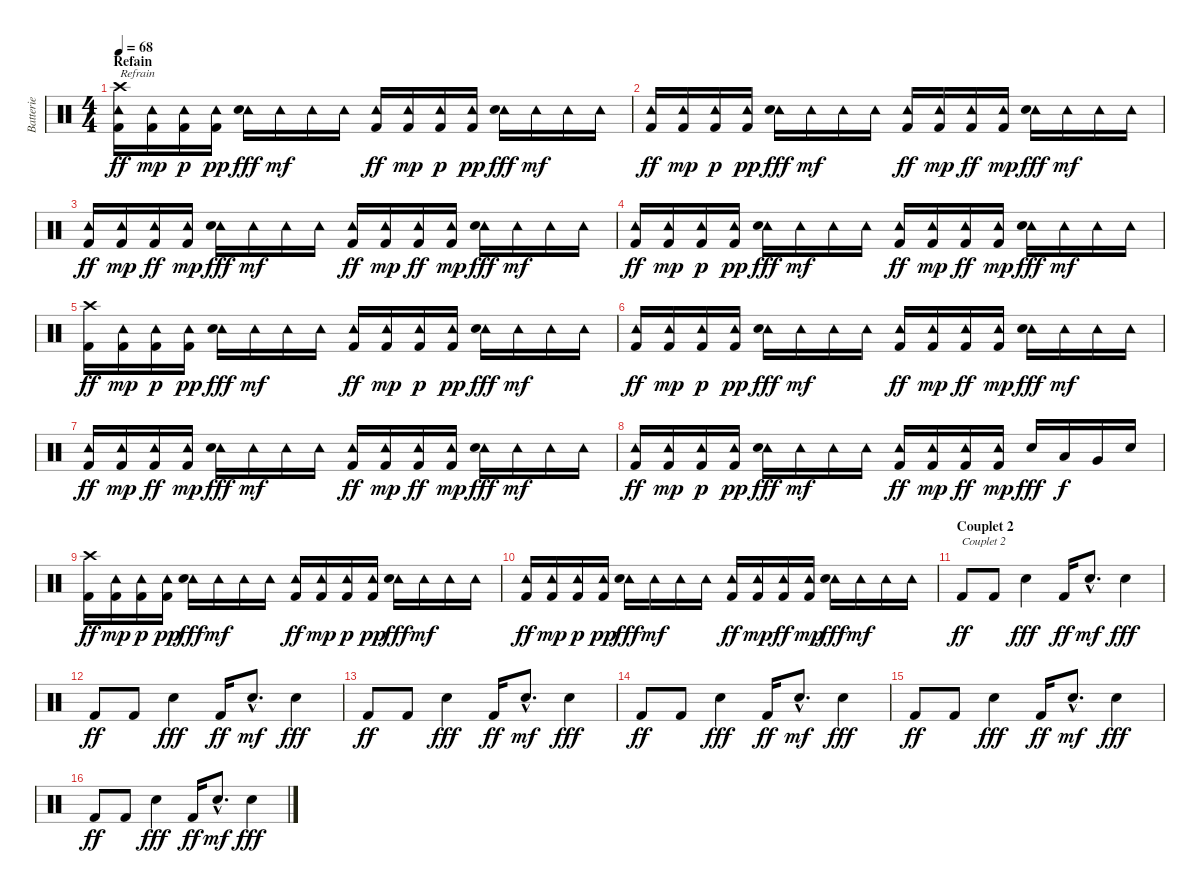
\track ("Batterie" "Batterie") {instrument percussion}
\staff {score}
\articulation defaults
\ts (4 4)
\section ("" "Refain")
\tempo 68
\clef neutral
\ks c
("Crash high (hit)" "Tambourine (hit)" "Kick (hit) 2").16{txt "Refrain" dy ff} ("Tambourine (hit)" "Kick (hit) 2").16{dy mp} ("Tambourine (hit)" "Kick (hit) 2").16{dy p} ("Tambourine (hit)" "Kick (hit) 2").16{dy pp} ("Tambourine (hit)" "Electric Snare (hit)").16{dy fff} "Tambourine (hit)".16{dy mf} "Tambourine (hit)".16 "Tambourine (hit)".16 ("Tambourine (hit)" "Kick (hit) 2").16{dy ff} ("Tambourine (hit)" "Kick (hit) 2").16{dy mp} ("Tambourine (hit)" "Kick (hit) 2").16{dy p} ("Tambourine (hit)" "Kick (hit) 2").16{dy pp} ("Tambourine (hit)" "Electric Snare (hit)").16{dy fff} "Tambourine (hit)".16{dy mf} "Tambourine (hit)".16 "Tambourine (hit)".16 |
("Tambourine (hit)" "Kick (hit) 2").16{dy ff} ("Tambourine (hit)" "Kick (hit) 2").16{dy mp} ("Tambourine (hit)" "Kick (hit) 2").16{dy p} ("Tambourine (hit)" "Kick (hit) 2").16{dy pp} ("Tambourine (hit)" "Electric Snare (hit)").16{dy fff} "Tambourine (hit)".16{dy mf} "Tambourine (hit)".16 "Tambourine (hit)".16 ("Tambourine (hit)" "Kick (hit) 2").16{dy ff} ("Tambourine (hit)" "Kick (hit) 2").16{dy mp} ("Tambourine (hit)" "Kick (hit) 2").16{dy ff} ("Tambourine (hit)" "Kick (hit) 2").16{dy mp} ("Tambourine (hit)" "Electric Snare (hit)").16{dy fff} "Tambourine (hit)".16{dy mf} "Tambourine (hit)".16 "Tambourine (hit)".16 |
("Tambourine (hit)" "Kick (hit) 2").16{dy ff} ("Tambourine (hit)" "Kick (hit) 2").16{dy mp} ("Tambourine (hit)" "Kick (hit) 2").16{dy ff} ("Tambourine (hit)" "Kick (hit) 2").16{dy mp} ("Tambourine (hit)" "Electric Snare (hit)").16{dy fff} "Tambourine (hit)".16{dy mf} "Tambourine (hit)".16 "Tambourine (hit)".16 ("Tambourine (hit)" "Kick (hit) 2").16{dy ff} ("Tambourine (hit)" "Kick (hit) 2").16{dy mp} ("Tambourine (hit)" "Kick (hit) 2").16{dy ff} ("Tambourine (hit)" "Kick (hit) 2").16{dy mp} ("Tambourine (hit)" "Electric Snare (hit)").16{dy fff} "Tambourine (hit)".16{dy mf} "Tambourine (hit)".16 "Tambourine (hit)".16 |
("Tambourine (hit)" "Kick (hit) 2").16{dy ff} ("Tambourine (hit)" "Kick (hit) 2").16{dy mp} ("Tambourine (hit)" "Kick (hit) 2").16{dy p} ("Tambourine (hit)" "Kick (hit) 2").16{dy pp} ("Tambourine (hit)" "Electric Snare (hit)").16{dy fff} "Tambourine (hit)".16{dy mf} "Tambourine (hit)".16 "Tambourine (hit)".16 ("Tambourine (hit)" "Kick (hit) 2").16{dy ff} ("Tambourine (hit)" "Kick (hit) 2").16{dy mp} ("Tambourine (hit)" "Kick (hit) 2").16{dy ff} ("Tambourine (hit)" "Kick (hit) 2").16{dy mp} ("Tambourine (hit)" "Electric Snare (hit)").16{dy fff} "Tambourine (hit)".16{dy mf} "Tambourine (hit)".16 "Tambourine (hit)".16 |
("Crash high (hit)" "Kick (hit) 2").16{dy ff} ("Tambourine (hit)" "Kick (hit) 2").16{dy mp} ("Tambourine (hit)" "Kick (hit) 2").16{dy p} ("Tambourine (hit)" "Kick (hit) 2").16{dy pp} ("Tambourine (hit)" "Electric Snare (hit)").16{dy fff} "Tambourine (hit)".16{dy mf} "Tambourine (hit)".16 "Tambourine (hit)".16 ("Tambourine (hit)" "Kick (hit) 2").16{dy ff} ("Tambourine (hit)" "Kick (hit) 2").16{dy mp} ("Tambourine (hit)" "Kick (hit) 2").16{dy p} ("Tambourine (hit)" "Kick (hit) 2").16{dy pp} ("Tambourine (hit)" "Electric Snare (hit)").16{dy fff} "Tambourine (hit)".16{dy mf} "Tambourine (hit)".16 "Tambourine (hit)".16 |
("Tambourine (hit)" "Kick (hit) 2").16{dy ff} ("Tambourine (hit)" "Kick (hit) 2").16{dy mp} ("Tambourine (hit)" "Kick (hit) 2").16{dy p} ("Tambourine (hit)" "Kick (hit) 2").16{dy pp} ("Tambourine (hit)" "Electric Snare (hit)").16{dy fff} "Tambourine (hit)".16{dy mf} "Tambourine (hit)".16 "Tambourine (hit)".16 ("Tambourine (hit)" "Kick (hit) 2").16{dy ff} ("Tambourine (hit)" "Kick (hit) 2").16{dy mp} ("Tambourine (hit)" "Kick (hit) 2").16{dy ff} ("Tambourine (hit)" "Kick (hit) 2").16{dy mp} ("Tambourine (hit)" "Electric Snare (hit)").16{dy fff} "Tambourine (hit)".16{dy mf} "Tambourine (hit)".16 "Tambourine (hit)".16 |
("Tambourine (hit)" "Kick (hit) 2").16{dy ff} ("Tambourine (hit)" "Kick (hit) 2").16{dy mp} ("Tambourine (hit)" "Kick (hit) 2").16{dy ff} ("Tambourine (hit)" "Kick (hit) 2").16{dy mp} ("Tambourine (hit)" "Electric Snare (hit)").16{dy fff} "Tambourine (hit)".16{dy mf} "Tambourine (hit)".16 "Tambourine (hit)".16 ("Tambourine (hit)" "Kick (hit) 2").16{dy ff} ("Tambourine (hit)" "Kick (hit) 2").16{dy mp} ("Tambourine (hit)" "Kick (hit) 2").16{dy ff} ("Tambourine (hit)" "Kick (hit) 2").16{dy mp} ("Tambourine (hit)" "Electric Snare (hit)").16{dy fff} "Tambourine (hit)".16{dy mf} "Tambourine (hit)".16 "Tambourine (hit)".16 |
("Tambourine (hit)" "Kick (hit) 2").16{dy ff} ("Tambourine (hit)" "Kick (hit) 2").16{dy mp} ("Tambourine (hit)" "Kick (hit) 2").16{dy p} ("Tambourine (hit)" "Kick (hit) 2").16{dy pp} ("Tambourine (hit)" "Electric Snare (hit)").16{dy fff} "Tambourine (hit)".16{dy mf} "Tambourine (hit)".16 "Tambourine (hit)".16 ("Tambourine (hit)" "Kick (hit) 2").16{dy ff} ("Tambourine (hit)" "Kick (hit) 2").16{dy mp} ("Tambourine (hit)" "Kick (hit) 2").16{dy ff} ("Tambourine (hit)" "Kick (hit) 2").16{dy mp} "Electric Snare (hit)".16{dy fff} "Low Tom (hit)".16{dy f} "Very Low Tom (hit)".16 "Electric Snare (hit)".16 |
("Crash high (hit)" "Kick (hit) 2").16{dy ff} ("Tambourine (hit)" "Kick (hit) 2").16{dy mp} ("Tambourine (hit)" "Kick (hit) 2").16{dy p} ("Tambourine (hit)" "Kick (hit) 2").16{dy pp} ("Tambourine (hit)" "Electric Snare (hit)").16{dy fff} "Tambourine (hit)".16{dy mf} "Tambourine (hit)".16 "Tambourine (hit)".16 ("Tambourine (hit)" "Kick (hit) 2").16{dy ff} ("Tambourine (hit)" "Kick (hit) 2").16{dy mp} ("Tambourine (hit)" "Kick (hit) 2").16{dy p} ("Tambourine (hit)" "Kick (hit) 2").16{dy pp} ("Tambourine (hit)" "Electric Snare (hit)").16{dy fff} "Tambourine (hit)".16{dy mf} "Tambourine (hit)".16 "Tambourine (hit)".16 |
("Tambourine (hit)" "Kick (hit) 2").16{dy ff} ("Tambourine (hit)" "Kick (hit) 2").16{dy mp} ("Tambourine (hit)" "Kick (hit) 2").16{dy p} ("Tambourine (hit)" "Kick (hit) 2").16{dy pp} ("Tambourine (hit)" "Electric Snare (hit)").16{dy fff} "Tambourine (hit)".16{dy mf} "Tambourine (hit)".16 "Tambourine (hit)".16 ("Tambourine (hit)" "Kick (hit) 2").16{dy ff} ("Tambourine (hit)" "Kick (hit) 2").16{dy mp} ("Tambourine (hit)" "Kick (hit) 2").16{dy ff} ("Tambourine (hit)" "Kick (hit) 2").16{dy mp} ("Tambourine (hit)" "Electric Snare (hit)").16{dy fff} "Tambourine (hit)".16{dy mf} "Tambourine (hit)".16 "Tambourine (hit)".16 |
\section ("" "Couplet 2")
"Kick (hit) 2".8{txt "Couplet 2" dy ff} "Kick (hit) 2".8 "Electric Snare (hit)".4{dy fff} "Kick (hit) 2".16{dy ff} "Electric Snare (hit)"{hac}.8{d dy mf} "Electric Snare (hit)".4{dy fff} |
"Kick (hit) 2".8{dy ff} "Kick (hit) 2".8 "Electric Snare (hit)".4{dy fff} "Kick (hit) 2".16{dy ff} "Electric Snare (hit)"{hac}.8{d dy mf} "Electric Snare (hit)".4{dy fff} |
"Kick (hit) 2".8{dy ff} "Kick (hit) 2".8 "Electric Snare (hit)".4{dy fff} "Kick (hit) 2".16{dy ff} "Electric Snare (hit)"{hac}.8{d dy mf} "Electric Snare (hit)".4{dy fff} |
"Kick (hit) 2".8{dy ff} "Kick (hit) 2".8 "Electric Snare (hit)".4{dy fff} "Kick (hit) 2".16{dy ff} "Electric Snare (hit)"{hac}.8{d dy mf} "Electric Snare (hit)".4{dy fff} |
"Kick (hit) 2".8{dy ff} "Kick (hit) 2".8 "Electric Snare (hit)".4{dy fff} "Kick (hit) 2".16{dy ff} "Electric Snare (hit)"{hac}.8{d dy mf} "Electric Snare (hit)".4{dy fff} |
"Kick (hit) 2".8{dy ff} "Kick (hit) 2".8 "Electric Snare (hit)".4{dy fff} "Kick (hit) 2".16{dy ff} "Electric Snare (hit)"{hac}.8{d dy mf} "Electric Snare (hit)".4{dy fff}
